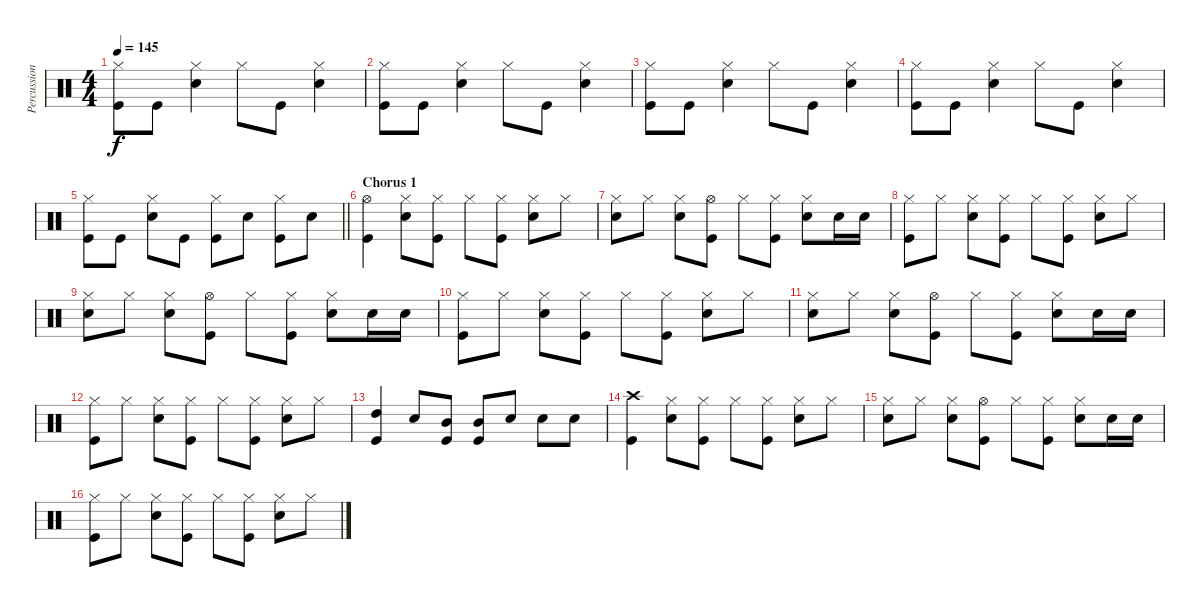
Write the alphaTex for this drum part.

\track ("Percussion" "Percussion") {instrument percussion}
\staff {score}
\articulation defaults
\ts (4 4)
\tempo 145
\clef neutral
\ks c
("Kick (hit)" "Hi-Hat (closed)").8{dy f} "Kick (hit)".8 ("Hi-Hat (closed)" "Snare (hit) 2").4 "Hi-Hat (closed)".8 "Kick (hit)".8 ("Hi-Hat (closed)" "Snare (hit) 2").4 |
("Kick (hit)" "Hi-Hat (closed)").8 "Kick (hit)".8 ("Hi-Hat (closed)" "Snare (hit) 2").4 "Hi-Hat (closed)".8 "Kick (hit)".8 ("Hi-Hat (closed)" "Snare (hit) 2").4 |
("Kick (hit)" "Hi-Hat (closed)").8 "Kick (hit)".8 ("Hi-Hat (closed)" "Snare (hit) 2").4 "Hi-Hat (closed)".8 "Kick (hit)".8 ("Hi-Hat (closed)" "Snare (hit) 2").4 |
("Kick (hit)" "Hi-Hat (closed)").8 "Kick (hit)".8 ("Hi-Hat (closed)" "Snare (hit) 2").4 "Hi-Hat (closed)".8 "Kick (hit)".8 ("Hi-Hat (closed)" "Snare (hit) 2").4 |
\barLineRight lightlight
("Kick (hit)" "Hi-Hat (closed)").8 "Kick (hit)".8 ("Hi-Hat (closed)" "Snare (hit) 2").8 "Kick (hit)".8 ("Kick (hit)" "Hi-Hat (closed)").8 "Snare (hit) 2".8 ("Kick (hit)" "Hi-Hat (closed)").8 "Snare (hit) 2".8 |
\section ("" "Chorus 1")
("Kick (hit)" "Hi-Hat (open)").4 ("Hi-Hat (closed)" "Snare (hit) 2").8 ("Kick (hit)" "Hi-Hat (closed)").8 "Hi-Hat (closed)".8 ("Kick (hit)" "Hi-Hat (closed)").8 ("Hi-Hat (closed)" "Snare (hit) 2").8 "Hi-Hat (closed)".8 |
("Hi-Hat (closed)" "Snare (hit) 2").8 "Hi-Hat (closed)".8 ("Hi-Hat (closed)" "Snare (hit) 2").8 ("Kick (hit)" "Hi-Hat (open)").8 "Hi-Hat (closed)".8 ("Kick (hit)" "Hi-Hat (closed)").8 ("Hi-Hat (closed)" "Snare (hit) 2").8 "Snare (hit) 2".16 "Snare (hit) 2".16 |
("Kick (hit)" "Hi-Hat (closed)").8 "Hi-Hat (closed)".8 ("Hi-Hat (closed)" "Snare (hit) 2").8 ("Kick (hit)" "Hi-Hat (closed)").8 "Hi-Hat (closed)".8 ("Kick (hit)" "Hi-Hat (closed)").8 ("Hi-Hat (closed)" "Snare (hit) 2").8 "Hi-Hat (closed)".8 |
("Hi-Hat (closed)" "Snare (hit) 2").8 "Hi-Hat (closed)".8 ("Hi-Hat (closed)" "Snare (hit) 2").8 ("Kick (hit)" "Hi-Hat (open)").8 "Hi-Hat (closed)".8 ("Kick (hit)" "Hi-Hat (closed)").8 ("Hi-Hat (closed)" "Snare (hit) 2").8 "Snare (hit) 2".16 "Snare (hit) 2".16 |
("Kick (hit)" "Hi-Hat (closed)").8 "Hi-Hat (closed)".8 ("Hi-Hat (closed)" "Snare (hit) 2").8 ("Kick (hit)" "Hi-Hat (closed)").8 "Hi-Hat (closed)".8 ("Kick (hit)" "Hi-Hat (closed)").8 ("Hi-Hat (closed)" "Snare (hit) 2").8 "Hi-Hat (closed)".8 |
("Hi-Hat (closed)" "Snare (hit) 2").8 "Hi-Hat (closed)".8 ("Hi-Hat (closed)" "Snare (hit) 2").8 ("Kick (hit)" "Hi-Hat (open)").8 "Hi-Hat (closed)".8 ("Kick (hit)" "Hi-Hat (closed)").8 ("Hi-Hat (closed)" "Snare (hit) 2").8 "Snare (hit) 2".16 "Snare (hit) 2".16 |
("Kick (hit)" "Hi-Hat (closed)").8 "Hi-Hat (closed)".8 ("Hi-Hat (closed)" "Snare (hit) 2").8 ("Kick (hit)" "Hi-Hat (closed)").8 "Hi-Hat (closed)".8 ("Kick (hit)" "Hi-Hat (closed)").8 ("Hi-Hat (closed)" "Snare (hit) 2").8 "Hi-Hat (closed)".8 |
("Kick (hit)" "High Tom (hit)").4 "Snare (hit) 2".8 ("Kick (hit)" "Mid Tom (hit)").8 ("Kick (hit)" "Mid Tom (hit)").8 "Snare (hit) 2".8 "Snare (hit) 2".8 "Snare (hit) 2".8 |
("Kick (hit)" "Crash high (hit)").4 ("Hi-Hat (closed)" "Snare (hit) 2").8 ("Kick (hit)" "Hi-Hat (closed)").8 "Hi-Hat (closed)".8 ("Kick (hit)" "Hi-Hat (closed)").8 ("Hi-Hat (closed)" "Snare (hit) 2").8 "Hi-Hat (closed)".8 |
("Hi-Hat (closed)" "Snare (hit) 2").8 "Hi-Hat (closed)".8 ("Hi-Hat (closed)" "Snare (hit) 2").8 ("Kick (hit)" "Hi-Hat (open)").8 "Hi-Hat (closed)".8 ("Kick (hit)" "Hi-Hat (closed)").8 ("Hi-Hat (closed)" "Snare (hit) 2").8 "Snare (hit) 2".16 "Snare (hit) 2".16 |
("Kick (hit)" "Hi-Hat (closed)").8 "Hi-Hat (closed)".8 ("Hi-Hat (closed)" "Snare (hit) 2").8 ("Kick (hit)" "Hi-Hat (closed)").8 "Hi-Hat (closed)".8 ("Kick (hit)" "Hi-Hat (closed)").8 ("Hi-Hat (closed)" "Snare (hit) 2").8 "Hi-Hat (closed)".8
